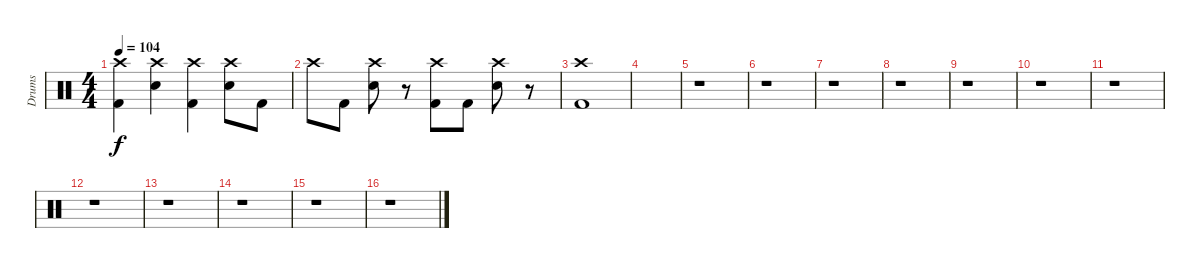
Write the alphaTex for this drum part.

\track ("Drums" "Drums") {instrument percussion}
\staff {score}
\articulation defaults
\ts (4 4)
\tempo 104
\clef neutral
\ks c
("Crash high (hit)" "Kick (hit) 2").4{dy f} ("Crash high (hit)" "Electric Snare (hit)").4 ("Crash high (hit)" "Kick (hit) 2").4 ("Crash high (hit)" "Electric Snare (hit)").8 "Kick (hit) 2".8 |
"Crash high (hit)".8 "Kick (hit) 2".8 ("Crash high (hit)" "Electric Snare (hit)").8 r.8 ("Crash high (hit)" "Kick (hit) 2").8 "Kick (hit) 2".8 ("Crash high (hit)" "Electric Snare (hit)").8 r.8 |
("Crash high (hit)" "Kick (hit) 2").1 |
|
r.1 |
r.1 |
r.1 |
r.1 |
r.1 |
r.1 |
r.1 |
r.1 |
r.1 |
r.1 |
r.1 |
r.1
